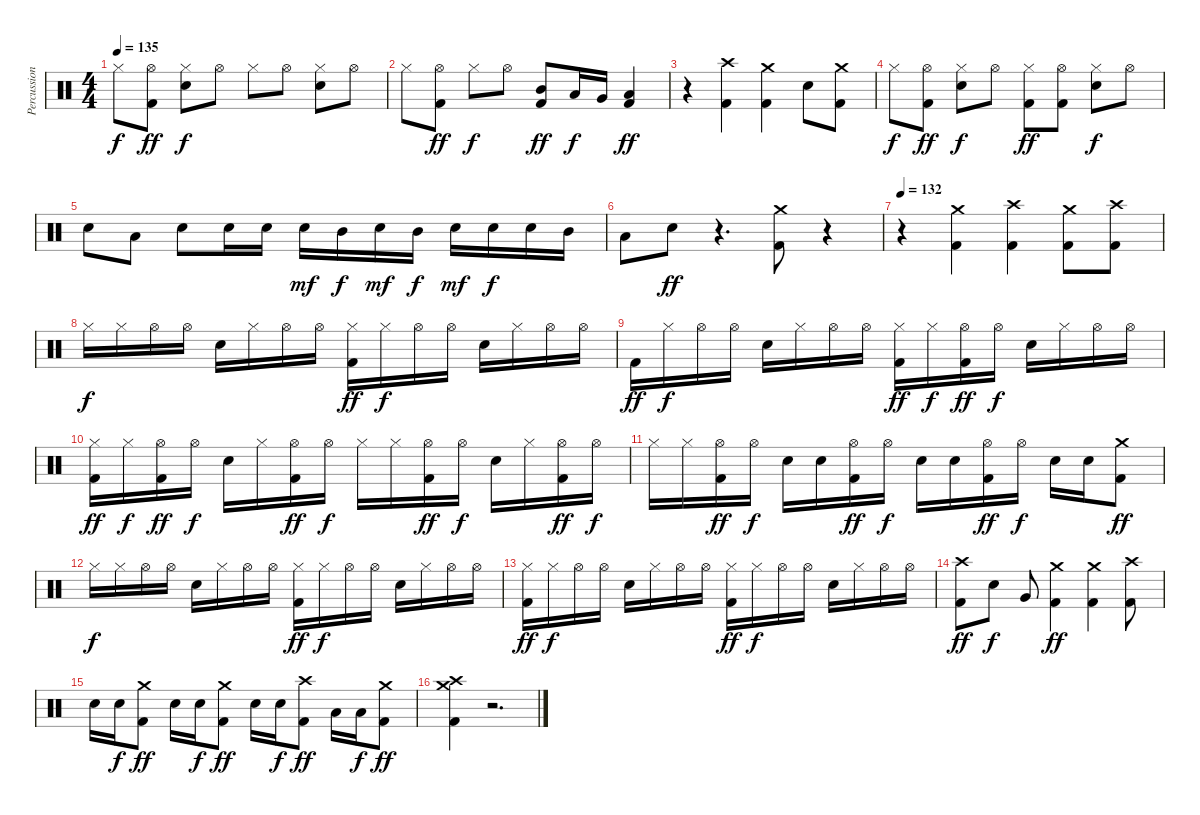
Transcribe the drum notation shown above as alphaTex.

\track ("Percussion" "Percussion") {instrument percussion}
\staff {score}
\articulation defaults
\ts (4 4)
\tempo 135
\clef neutral
\ks c "Hi-Hat (closed)".8{dy f}
("Kick (hit) 2" "Hi-Hat (open)").8{dy ff} ("Snare (hit) 2" "Hi-Hat (closed)").8{dy f} "Hi-Hat (open)".8 "Hi-Hat (closed)".8 "Hi-Hat (open)".8 ("Snare (hit) 2" "Hi-Hat (closed)").8 "Hi-Hat (open)".8 |
"Hi-Hat (closed)".8 ("Kick (hit) 2" "Hi-Hat (open)").8{dy ff} "Hi-Hat (closed)".8{dy f} "Hi-Hat (open)".8 ("Kick (hit) 2" "Mid Tom (hit)").8{dy ff} "Low Tom (hit)".16{dy f} "Very Low Tom (hit)".16 ("Kick (hit) 2" "Low Floor Tom (hit)").4{dy ff} |
r.4 ("Kick (hit) 2" "Crash high (hit)").4 ("Kick (hit) 2" "Crash medium (hit)").4 "Snare (hit) 2".8 ("Kick (hit) 2" "Crash medium (hit)").8 |
"Hi-Hat (closed)".8{dy f} ("Kick (hit) 2" "Hi-Hat (open)").8{dy ff} ("Snare (hit) 2" "Hi-Hat (closed)").8{dy f} "Hi-Hat (open)".8 ("Kick (hit) 2" "Hi-Hat (closed)").8{dy ff} ("Kick (hit) 2" "Hi-Hat (open)").8 ("Snare (hit) 2" "Hi-Hat (closed)").8{dy f} "Hi-Hat (open)".8 |
"Snare (hit) 2".8 "Low Tom (hit)".8 "Snare (hit) 2".8 "Snare (hit) 2".16 "Snare (hit) 2".16 "Snare (hit) 2".16{dy mf} "Mid Tom (hit)".16{dy f} "Snare (hit) 2".16{dy mf} "Mid Tom (hit)".16{dy f} "Snare (hit) 2".16{dy mf} "Snare (hit) 2".16{dy f} "Snare (hit) 2".16 "Mid Tom (hit)".16 |
"Low Tom (hit)".8 "Snare (hit) 2".8{dy ff} r.4{d} ("Kick (hit) 2" "Crash medium (hit)").8 r.4 |
\tempo 132
r.4 ("Kick (hit) 2" "Crash medium (hit)").4 ("Kick (hit) 2" "Crash high (hit)").4 ("Kick (hit) 2" "Crash medium (hit)").8 ("Kick (hit) 2" "Crash high (hit)").8 |
"Hi-Hat (closed)".16{dy f} "Hi-Hat (closed)".16 "Hi-Hat (open)".16 "Hi-Hat (open)".16 "Snare (hit) 2".16 "Hi-Hat (closed)".16 "Hi-Hat (open)".16 "Hi-Hat (open)".16 ("Kick (hit) 2" "Hi-Hat (closed)").16{dy ff} "Hi-Hat (closed)".16{dy f} "Hi-Hat (open)".16 "Hi-Hat (open)".16 "Snare (hit) 2".16 "Hi-Hat (closed)".16 "Hi-Hat (open)".16 "Hi-Hat (open)".16 |
"Kick (hit) 2".16{dy ff} "Hi-Hat (closed)".16{dy f} "Hi-Hat (open)".16 "Hi-Hat (open)".16 "Snare (hit) 2".16 "Hi-Hat (closed)".16 "Hi-Hat (open)".16 "Hi-Hat (open)".16 ("Kick (hit) 2" "Hi-Hat (closed)").16{dy ff} "Hi-Hat (closed)".16{dy f} ("Kick (hit) 2" "Hi-Hat (open)").16{dy ff} "Hi-Hat (open)".16{dy f} "Snare (hit) 2".16 "Hi-Hat (closed)".16 "Hi-Hat (open)".16 "Hi-Hat (open)".16 |
("Kick (hit) 2" "Hi-Hat (closed)").16{dy ff} "Hi-Hat (closed)".16{dy f} ("Kick (hit) 2" "Hi-Hat (open)").16{dy ff} "Hi-Hat (open)".16{dy f} "Snare (hit) 2".16 "Hi-Hat (closed)".16 ("Kick (hit) 2" "Hi-Hat (open)").16{dy ff} "Hi-Hat (open)".16{dy f} "Hi-Hat (closed)".16 "Hi-Hat (closed)".16 ("Kick (hit) 2" "Hi-Hat (open)").16{dy ff} "Hi-Hat (open)".16{dy f} "Snare (hit) 2".16 "Hi-Hat (closed)".16 ("Kick (hit) 2" "Hi-Hat (open)").16{dy ff} "Hi-Hat (open)".16{dy f} |
"Hi-Hat (closed)".16 "Hi-Hat (closed)".16 ("Kick (hit) 2" "Hi-Hat (open)").16{dy ff} "Hi-Hat (open)".16{dy f} "Snare (hit) 2".16 "Snare (hit) 2".16 ("Kick (hit) 2" "Hi-Hat (open)").16{dy ff} "Hi-Hat (open)".16{dy f} "Snare (hit) 2".16 "Snare (hit) 2".16 ("Kick (hit) 2" "Hi-Hat (open)").16{dy ff} "Hi-Hat (open)".16{dy f} "Snare (hit) 2".16 "Snare (hit) 2".16 ("Kick (hit) 2" "Crash medium (hit)").8{dy ff} |
"Hi-Hat (closed)".16{dy f} "Hi-Hat (closed)".16 "Hi-Hat (open)".16 "Hi-Hat (open)".16 "Snare (hit) 2".16 "Hi-Hat (closed)".16 "Hi-Hat (open)".16 "Hi-Hat (open)".16 ("Kick (hit) 2" "Hi-Hat (closed)").16{dy ff} "Hi-Hat (closed)".16{dy f} "Hi-Hat (open)".16 "Hi-Hat (open)".16 "Snare (hit) 2".16 "Hi-Hat (closed)".16 "Hi-Hat (open)".16 "Hi-Hat (open)".16 |
("Kick (hit) 2" "Hi-Hat (closed)").16{dy ff} "Hi-Hat (closed)".16{dy f} "Hi-Hat (open)".16 "Hi-Hat (open)".16 "Snare (hit) 2".16 "Hi-Hat (closed)".16 "Hi-Hat (open)".16 "Hi-Hat (open)".16 ("Kick (hit) 2" "Hi-Hat (closed)").16{dy ff} "Hi-Hat (closed)".16{dy f} "Hi-Hat (open)".16 "Hi-Hat (open)".16 "Snare (hit) 2".16 "Hi-Hat (closed)".16 "Hi-Hat (open)".16 "Hi-Hat (open)".16 |
("Kick (hit) 2" "Crash high (hit)").8{dy ff} "Snare (hit) 2".8{dy f} "Very Low Tom (hit)".8 ("Kick (hit) 2" "Crash medium (hit)").4{dy ff} ("Kick (hit) 2" "Crash medium (hit)").4 ("Kick (hit) 2" "Crash high (hit)").8 |
"Snare (hit) 2".16 "Snare (hit) 2".16{dy f} ("Kick (hit) 2" "Crash medium (hit)").8{dy ff} "Snare (hit) 2".16 "Snare (hit) 2".16{dy f} ("Kick (hit) 2" "Crash medium (hit)").8{dy ff} "Snare (hit) 2".16 "Snare (hit) 2".16{dy f} ("Kick (hit) 2" "Crash high (hit)").8{dy ff} "Low Tom (hit)".16 "Low Tom (hit)".16{dy f} ("Kick (hit) 2" "Crash medium (hit)").8{dy ff} |
("Kick (hit) 2" "Crash high (hit)" "Crash medium (hit)").4 r.2{d}
